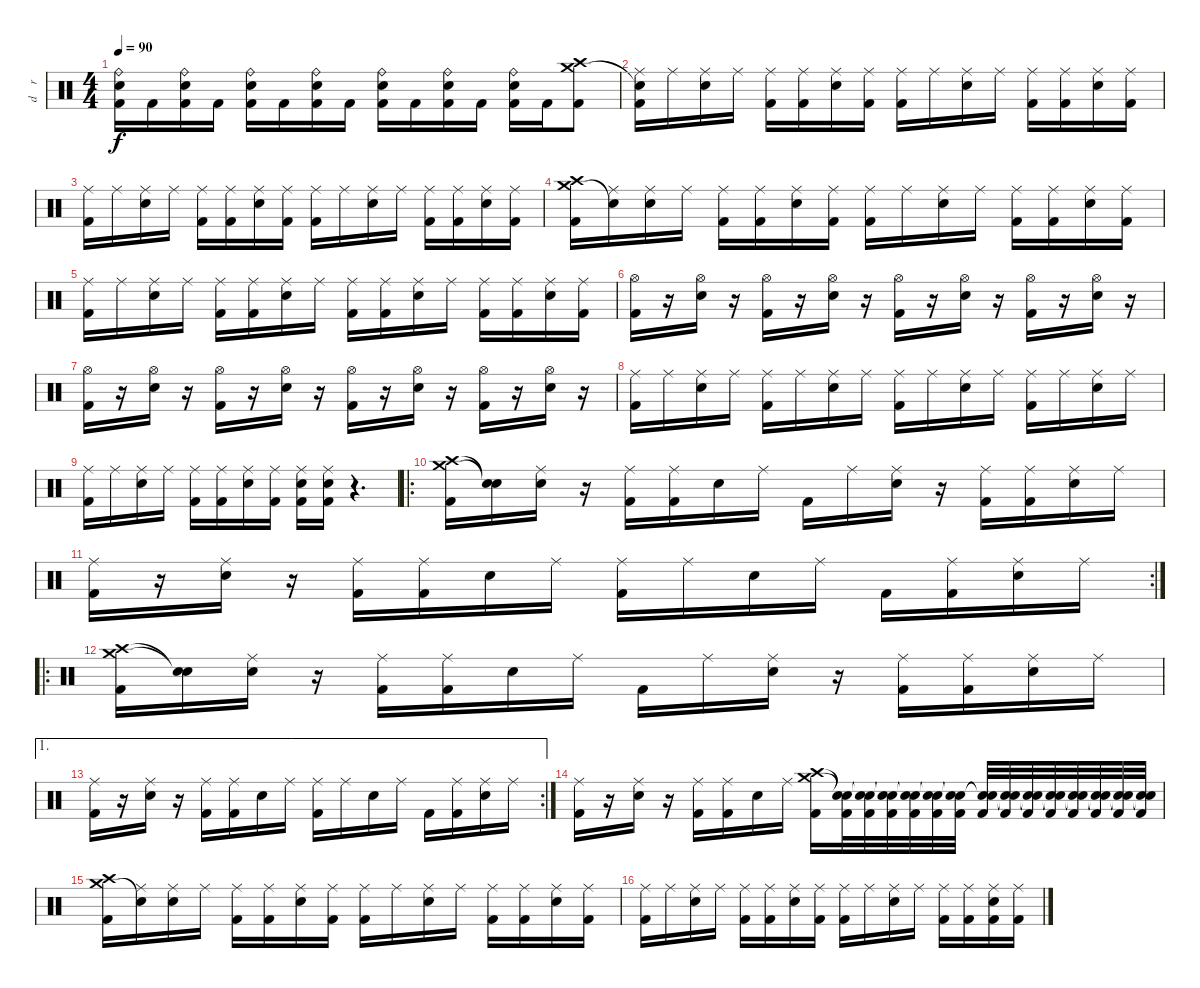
\track ("d    r     u    m    s" "d    r    ") {instrument percussion}
\staff {score}
\articulation defaults
\ts (4 4)
\tempo 90
\clef neutral
\ks c
("Ride (bell)" "Electric Snare (hit)" "Kick (hit) 2").16{dy f} "Kick (hit) 2".16 ("Ride (bell)" "Electric Snare (hit)" "Kick (hit) 2").16 "Kick (hit) 2".16 ("Ride (bell)" "Electric Snare (hit)" "Kick (hit) 2").16 "Kick (hit) 2".16 ("Ride (bell)" "Electric Snare (hit)" "Kick (hit) 2").16 "Kick (hit) 2".16 ("Ride (bell)" "Electric Snare (hit)" "Kick (hit) 2").16 "Kick (hit) 2".16 ("Ride (bell)" "Electric Snare (hit)" "Kick (hit) 2").16 "Kick (hit) 2".16 ("Ride (bell)" "Electric Snare (hit)" "Kick (hit) 2").16 "Kick (hit) 2".16 ("Crash high (hit)" "Crash medium (hit)" "Kick (hit) 2").8 |
("Ride (middle)" "Snare (hit)"{t} "Kick (hit) 2").16 "Ride (middle)".16 ("Ride (middle)" "Electric Snare (hit)").16 "Ride (middle)".16 ("Ride (middle)" "Kick (hit) 2").16 ("Ride (middle)" "Kick (hit) 2").16 ("Ride (middle)" "Electric Snare (hit)").16 ("Ride (middle)" "Kick (hit) 2").16 ("Ride (middle)" "Kick (hit) 2").16 "Ride (middle)".16 ("Ride (middle)" "Electric Snare (hit)").16 "Ride (middle)".16 ("Ride (middle)" "Kick (hit) 2").16 ("Ride (middle)" "Kick (hit) 2").16 ("Ride (middle)" "Electric Snare (hit)").16 ("Ride (middle)" "Kick (hit) 2").16 |
("Ride (middle)" "Kick (hit) 2").16 "Ride (middle)".16 ("Ride (middle)" "Electric Snare (hit)").16 "Ride (middle)".16 ("Ride (middle)" "Kick (hit) 2").16 ("Ride (middle)" "Kick (hit) 2").16 ("Ride (middle)" "Electric Snare (hit)").16 ("Ride (middle)" "Kick (hit) 2").16 ("Ride (middle)" "Kick (hit) 2").16 "Ride (middle)".16 ("Ride (middle)" "Electric Snare (hit)").16 "Ride (middle)".16 ("Ride (middle)" "Kick (hit) 2").16 ("Ride (middle)" "Kick (hit) 2").16 ("Ride (middle)" "Electric Snare (hit)").16 ("Ride (middle)" "Kick (hit) 2").16 |
("Crash high (hit)" "Crash medium (hit)" "Kick (hit) 2").16 ("Ride (middle)" "Snare (hit)"{t}).16 ("Ride (middle)" "Electric Snare (hit)").16 "Ride (middle)".16 ("Ride (middle)" "Kick (hit) 2").16 ("Ride (middle)" "Kick (hit) 2").16 ("Ride (middle)" "Electric Snare (hit)").16 ("Ride (middle)" "Kick (hit) 2").16 ("Ride (middle)" "Kick (hit) 2").16 "Ride (middle)".16 ("Ride (middle)" "Electric Snare (hit)").16 "Ride (middle)".16 ("Ride (middle)" "Kick (hit) 2").16 ("Ride (middle)" "Kick (hit) 2").16 ("Ride (middle)" "Electric Snare (hit)").16 ("Ride (middle)" "Kick (hit) 2").16 |
("Ride (middle)" "Kick (hit) 2").16 "Ride (middle)".16 ("Ride (middle)" "Electric Snare (hit)").16 "Ride (middle)".16 ("Ride (middle)" "Kick (hit) 2").16 ("Ride (middle)" "Kick (hit) 2").16 ("Ride (middle)" "Electric Snare (hit)").16 "Ride (middle)".16 ("Ride (middle)" "Kick (hit) 2").16 ("Ride (middle)" "Kick (hit) 2").16 ("Ride (middle)" "Electric Snare (hit)").16 "Ride (middle)".16 ("Ride (middle)" "Kick (hit) 2").16 ("Ride (middle)" "Kick (hit) 2").16 ("Ride (middle)" "Electric Snare (hit)").16 ("Ride (middle)" "Kick (hit) 2").16 |
("Hi-Hat (open)" "Kick (hit) 2").16 r.16 ("Hi-Hat (open)" "Electric Snare (hit)").16 r.16 ("Hi-Hat (open)" "Kick (hit) 2").16 r.16 ("Hi-Hat (open)" "Electric Snare (hit)").16 r.16 ("Hi-Hat (open)" "Kick (hit) 2").16 r.16 ("Hi-Hat (open)" "Electric Snare (hit)").16 r.16 ("Hi-Hat (open)" "Kick (hit) 2").16 r.16 ("Hi-Hat (open)" "Electric Snare (hit)").16 r.16 |
("Hi-Hat (open)" "Kick (hit) 2").16 r.16 ("Hi-Hat (open)" "Electric Snare (hit)").16 r.16 ("Hi-Hat (open)" "Kick (hit) 2").16 r.16 ("Hi-Hat (open)" "Electric Snare (hit)").16 r.16 ("Hi-Hat (open)" "Kick (hit) 2").16 r.16 ("Hi-Hat (open)" "Electric Snare (hit)").16 r.16 ("Hi-Hat (open)" "Kick (hit) 2").16 r.16 ("Hi-Hat (open)" "Electric Snare (hit)").16 r.16 |
("Ride (middle)" "Kick (hit) 2").16 "Ride (middle)".16 ("Ride (middle)" "Electric Snare (hit)").16 "Ride (middle)".16 ("Ride (middle)" "Kick (hit) 2").16 "Ride (middle)".16 ("Ride (middle)" "Electric Snare (hit)").16 "Ride (middle)".16 ("Ride (middle)" "Kick (hit) 2").16 "Ride (middle)".16 ("Ride (middle)" "Electric Snare (hit)").16 "Ride (middle)".16 ("Ride (middle)" "Kick (hit) 2").16 "Ride (middle)".16 ("Ride (middle)" "Electric Snare (hit)").16 "Ride (middle)".16 |
("Ride (middle)" "Kick (hit) 2").16 "Ride (middle)".16 ("Ride (middle)" "Electric Snare (hit)").16 "Ride (middle)".16 ("Ride (middle)" "Kick (hit) 2").16 ("Ride (middle)" "Kick (hit) 2").16 ("Ride (middle)" "Electric Snare (hit)").16 ("Ride (middle)" "Kick (hit) 2").16 ("Ride (middle)" "Electric Snare (hit)" "Kick (hit) 2").16 ("Ride (middle)" "Electric Snare (hit)" "Kick (hit) 2").16 r.4{d} |
\ro
("Crash high (hit)" "Crash medium (hit)" "Kick (hit) 2").16 ("Snare (hit)"{t} "Snare (hit)"{t}).16 ("Ride (middle)" "Electric Snare (hit)").16 r.16 ("Ride (middle)" "Kick (hit) 2").16 ("Ride (middle)" "Kick (hit) 2").16 "Electric Snare (hit)".16 "Ride (middle)".16 "Kick (hit) 2".16 "Ride (middle)".16 ("Ride (middle)" "Electric Snare (hit)").16 r.16 ("Ride (middle)" "Kick (hit) 2").16 ("Ride (middle)" "Kick (hit) 2").16 ("Ride (middle)" "Electric Snare (hit)").16 "Ride (middle)".16 |
\rc 2
("Ride (middle)" "Kick (hit) 2").16 r.16 ("Ride (middle)" "Electric Snare (hit)").16 r.16 ("Ride (middle)" "Kick (hit) 2").16 ("Ride (middle)" "Kick (hit) 2").16 "Electric Snare (hit)".16 "Ride (middle)".16 ("Ride (middle)" "Kick (hit) 2").16 "Ride (middle)".16 "Electric Snare (hit)".16 "Ride (middle)".16 "Kick (hit) 2".16 ("Ride (middle)" "Kick (hit) 2").16 ("Ride (middle)" "Electric Snare (hit)").16 "Ride (middle)".16 |
\ro
("Crash high (hit)" "Crash medium (hit)" "Kick (hit) 2").16 ("Snare (hit)"{t} "Snare (hit)"{t}).16 ("Ride (middle)" "Electric Snare (hit)").16 r.16 ("Ride (middle)" "Kick (hit) 2").16 ("Ride (middle)" "Kick (hit) 2").16 "Electric Snare (hit)".16 "Ride (middle)".16 "Kick (hit) 2".16 "Ride (middle)".16 ("Ride (middle)" "Electric Snare (hit)").16 r.16 ("Ride (middle)" "Kick (hit) 2").16 ("Ride (middle)" "Kick (hit) 2").16 ("Ride (middle)" "Electric Snare (hit)").16 "Ride (middle)".16 |
\ae 1
\rc 2
("Ride (middle)" "Kick (hit) 2").16 r.16 ("Ride (middle)" "Electric Snare (hit)").16 r.16 ("Ride (middle)" "Kick (hit) 2").16 ("Ride (middle)" "Kick (hit) 2").16 "Electric Snare (hit)".16 "Ride (middle)".16 ("Ride (middle)" "Kick (hit) 2").16 "Ride (middle)".16 "Electric Snare (hit)".16 "Ride (middle)".16 "Kick (hit) 2".16 ("Ride (middle)" "Kick (hit) 2").16 ("Ride (middle)" "Electric Snare (hit)").16 "Ride (middle)".16 |
("Ride (middle)" "Kick (hit) 2").16 r.16 ("Ride (middle)" "Electric Snare (hit)").16 r.16 ("Ride (middle)" "Kick (hit) 2").16 ("Ride (middle)" "Kick (hit) 2").16 "Electric Snare (hit)".16 "Ride (middle)".16 ("Crash high (hit)" "Crash medium (hit)" "Kick (hit) 2").16 ("Snare (hit)"{t} "Snare (hit)"{t} "Kick (hit) 2").32 ("Snare (hit)"{t} "Snare (hit)"{t} "Kick (hit) 2").32 ("Snare (hit)"{t} "Snare (hit)"{t} "Kick (hit) 2").32 ("Snare (hit)"{t} "Snare (hit)"{t} "Kick (hit) 2").32 ("Snare (hit)"{t} "Snare (hit)"{t} "Kick (hit) 2").32 ("Snare (hit)"{t} "Snare (hit)"{t} "Kick (hit) 2").32 ("Snare (hit)"{t} "Snare (hit)"{t} "Kick (hit) 2").32 ("Snare (hit)"{t} "Snare (hit)"{t} "Kick (hit) 2").32 ("Snare (hit)"{t} "Snare (hit)"{t} "Kick (hit) 2").32 ("Snare (hit)"{t} "Snare (hit)"{t} "Kick (hit) 2").32 ("Snare (hit)"{t} "Snare (hit)"{t} "Kick (hit) 2").32 ("Snare (hit)"{t} "Snare (hit)"{t} "Kick (hit) 2").32 ("Snare (hit)"{t} "Snare (hit)"{t} "Kick (hit) 2").32 ("Snare (hit)"{t} "Snare (hit)"{t} "Kick (hit) 2").32 |
("Crash high (hit)" "Crash medium (hit)" "Kick (hit) 2").16 ("Ride (middle)" "Snare (hit)"{t}).16 ("Ride (middle)" "Electric Snare (hit)").16 "Ride (middle)".16 ("Ride (middle)" "Kick (hit) 2").16 ("Ride (middle)" "Kick (hit) 2").16 ("Ride (middle)" "Electric Snare (hit)").16 ("Ride (middle)" "Kick (hit) 2").16 ("Ride (middle)" "Kick (hit) 2").16 "Ride (middle)".16 ("Ride (middle)" "Electric Snare (hit)").16 "Ride (middle)".16 ("Ride (middle)" "Kick (hit) 2").16 ("Ride (middle)" "Kick (hit) 2").16 ("Ride (middle)" "Electric Snare (hit)").16 ("Ride (middle)" "Kick (hit) 2").16 |
("Ride (middle)" "Kick (hit) 2").16 "Ride (middle)".16 ("Ride (middle)" "Electric Snare (hit)").16 "Ride (middle)".16 ("Ride (middle)" "Kick (hit) 2").16 ("Ride (middle)" "Kick (hit) 2").16 ("Ride (middle)" "Electric Snare (hit)").16 ("Ride (middle)" "Kick (hit) 2").16 ("Ride (middle)" "Kick (hit) 2").16 "Ride (middle)".16 ("Ride (middle)" "Electric Snare (hit)").16 "Ride (middle)".16 ("Ride (middle)" "Kick (hit) 2").16 ("Ride (middle)" "Kick (hit) 2").16 ("Ride (middle)" "Electric Snare (hit)" "Kick (hit) 2").16 ("Ride (middle)" "Kick (hit) 2").16
